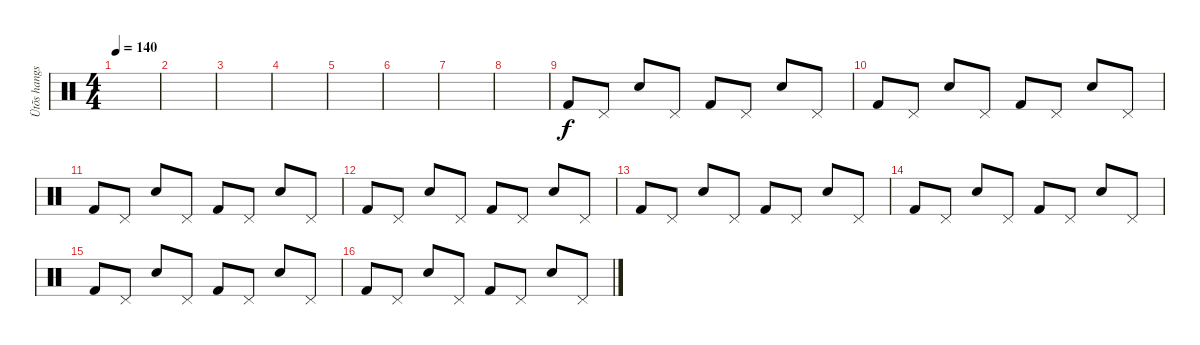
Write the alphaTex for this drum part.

\track ("Ütõs hangszer" "Ütõs hangs") {instrument percussion}
\staff {score}
\articulation defaults
\ts (4 4)
\tempo 140
\clef neutral
\ks c
|
|
|
|
|
|
|
|
"Kick (hit) 2".8 "Pedal Hi-Hat (hit)".8 "Snare (hit) 2".8 "Pedal Hi-Hat (hit)".8 "Kick (hit) 2".8 "Pedal Hi-Hat (hit)".8 "Snare (hit) 2".8 "Pedal Hi-Hat (hit)".8 |
"Kick (hit) 2".8 "Pedal Hi-Hat (hit)".8 "Snare (hit) 2".8 "Pedal Hi-Hat (hit)".8 "Kick (hit) 2".8 "Pedal Hi-Hat (hit)".8 "Snare (hit) 2".8 "Pedal Hi-Hat (hit)".8 |
"Kick (hit) 2".8 "Pedal Hi-Hat (hit)".8 "Snare (hit) 2".8 "Pedal Hi-Hat (hit)".8 "Kick (hit) 2".8 "Pedal Hi-Hat (hit)".8 "Snare (hit) 2".8 "Pedal Hi-Hat (hit)".8 |
"Kick (hit) 2".8 "Pedal Hi-Hat (hit)".8 "Snare (hit) 2".8 "Pedal Hi-Hat (hit)".8 "Kick (hit) 2".8 "Pedal Hi-Hat (hit)".8 "Snare (hit) 2".8 "Pedal Hi-Hat (hit)".8 |
"Kick (hit) 2".8 "Pedal Hi-Hat (hit)".8 "Snare (hit) 2".8 "Pedal Hi-Hat (hit)".8 "Kick (hit) 2".8 "Pedal Hi-Hat (hit)".8 "Snare (hit) 2".8 "Pedal Hi-Hat (hit)".8 |
"Kick (hit) 2".8 "Pedal Hi-Hat (hit)".8 "Snare (hit) 2".8 "Pedal Hi-Hat (hit)".8 "Kick (hit) 2".8 "Pedal Hi-Hat (hit)".8 "Snare (hit) 2".8 "Pedal Hi-Hat (hit)".8 |
"Kick (hit) 2".8 "Pedal Hi-Hat (hit)".8 "Snare (hit) 2".8 "Pedal Hi-Hat (hit)".8 "Kick (hit) 2".8 "Pedal Hi-Hat (hit)".8 "Snare (hit) 2".8 "Pedal Hi-Hat (hit)".8 |
"Kick (hit) 2".8 "Pedal Hi-Hat (hit)".8 "Snare (hit) 2".8 "Pedal Hi-Hat (hit)".8 "Kick (hit) 2".8 "Pedal Hi-Hat (hit)".8 "Snare (hit) 2".8 "Pedal Hi-Hat (hit)".8
